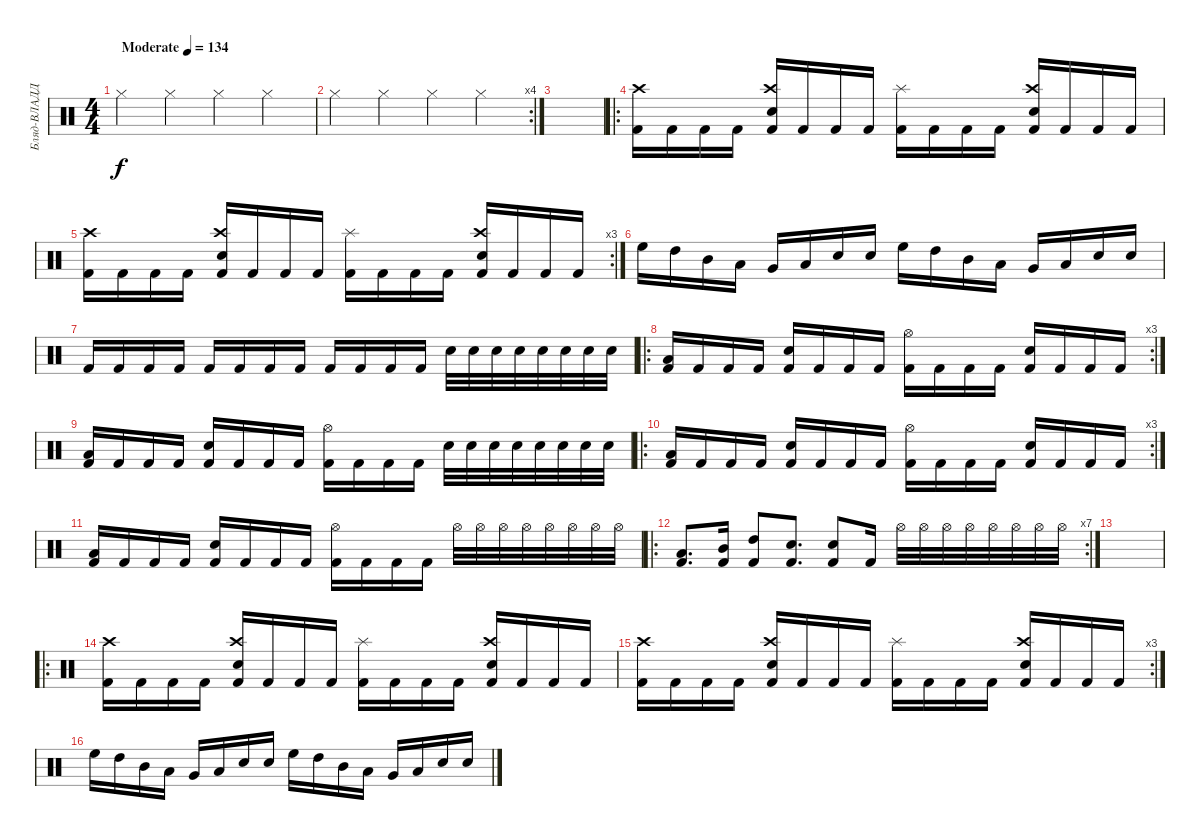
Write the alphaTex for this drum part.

\track ("Бляд-ВЛАДД" "Бляд-ВЛАДД") {instrument percussion}
\staff
\articulation defaults
\ts (4 4)
\tempo (134 "Moderate")
\clef neutral
\ks c "Hi-Hat (closed)".4{dy f} "Hi-Hat (closed)".4 "Hi-Hat (closed)".4 "Hi-Hat (closed)".4
|
\rc 4 "Hi-Hat (closed)".4 "Hi-Hat (closed)".4 "Hi-Hat (closed)".4 "Hi-Hat (closed)".4
|
|
\ro
("Kick (hit) 2" "Crash high (hit)").16 "Kick (hit) 2".16 "Kick (hit) 2".16 "Kick (hit) 2".16 ("Kick (hit) 2" "Crash high (hit)" "Snare (hit) 2").16 "Kick (hit) 2".16 "Kick (hit) 2".16 "Kick (hit) 2".16 ("Kick (hit) 2" "Splash (hit)").16 "Kick (hit) 2".16 "Kick (hit) 2".16 "Kick (hit) 2".16 ("Kick (hit) 2" "Crash high (hit)" "Snare (hit) 2").16 "Kick (hit) 2".16 "Kick (hit) 2".16 "Kick (hit) 2".16 |
\rc 3
("Kick (hit) 2" "Crash high (hit)").16 "Kick (hit) 2".16 "Kick (hit) 2".16 "Kick (hit) 2".16 ("Kick (hit) 2" "Crash high (hit)" "Snare (hit) 2").16 "Kick (hit) 2".16 "Kick (hit) 2".16 "Kick (hit) 2".16 ("Kick (hit) 2" "Splash (hit)").16 "Kick (hit) 2".16 "Kick (hit) 2".16 "Kick (hit) 2".16 ("Kick (hit) 2" "Crash high (hit)" "Snare (hit) 2").16 "Kick (hit) 2".16 "Kick (hit) 2".16 "Kick (hit) 2".16 |
"High Floor Tom (hit)".16 "High Tom (hit)".16 "Mid Tom (hit)".16 "Low Tom (hit)".16 "Very Low Tom (hit)".16 "Low Floor Tom (hit)".16 "Snare (hit) 2".16 "Snare (hit) 2".16 "High Floor Tom (hit)".16 "High Tom (hit)".16 "Mid Tom (hit)".16 "Low Tom (hit)".16 "Very Low Tom (hit)".16 "Low Floor Tom (hit)".16 "Snare (hit) 2".16 "Snare (hit) 2".16 |
"Kick (hit) 2".16 "Kick (hit) 2".16 "Kick (hit) 2".16 "Kick (hit) 2".16 "Kick (hit) 2".16 "Kick (hit) 2".16 "Kick (hit) 2".16 "Kick (hit) 2".16 "Kick (hit) 2".16 "Kick (hit) 2".16 "Kick (hit) 2".16 "Kick (hit) 2".16 "Snare (hit) 2".32 "Snare (hit) 2".32 "Snare (hit) 2".32 "Snare (hit) 2".32 "Snare (hit) 2".32 "Snare (hit) 2".32 "Snare (hit) 2".32 "Snare (hit) 2".32 |
\ro
\rc 3
("Kick (hit) 2" "Low Floor Tom (hit)").16 "Kick (hit) 2".16 "Kick (hit) 2".16 "Kick (hit) 2".16 ("Kick (hit) 2" "Electric Snare (hit)").16 "Kick (hit) 2".16 "Kick (hit) 2".16 "Kick (hit) 2".16 ("Kick (hit) 2" "Hi-Hat (open)").16 "Kick (hit) 2".16 "Kick (hit) 2".16 "Kick (hit) 2".16 ("Kick (hit) 2" "Snare (hit) 2").16 "Kick (hit) 2".16 "Kick (hit) 2".16 "Kick (hit) 2".16 |
("Kick (hit) 2" "Low Floor Tom (hit)").16 "Kick (hit) 2".16 "Kick (hit) 2".16 "Kick (hit) 2".16 ("Kick (hit) 2" "Electric Snare (hit)").16 "Kick (hit) 2".16 "Kick (hit) 2".16 "Kick (hit) 2".16 ("Kick (hit) 2" "Hi-Hat (open)").16 "Kick (hit) 2".16 "Kick (hit) 2".16 "Kick (hit) 2".16 "Snare (hit) 2".32 "Snare (hit) 2".32 "Snare (hit) 2".32 "Snare (hit) 2".32 "Snare (hit) 2".32 "Snare (hit) 2".32 "Snare (hit) 2".32 "Snare (hit) 2".32 |
\ro
\rc 3
("Kick (hit) 2" "Low Floor Tom (hit)").16 "Kick (hit) 2".16 "Kick (hit) 2".16 "Kick (hit) 2".16 ("Kick (hit) 2" "Electric Snare (hit)").16 "Kick (hit) 2".16 "Kick (hit) 2".16 "Kick (hit) 2".16 ("Kick (hit) 2" "Hi-Hat (open)").16 "Kick (hit) 2".16 "Kick (hit) 2".16 "Kick (hit) 2".16 ("Kick (hit) 2" "Snare (hit) 2").16 "Kick (hit) 2".16 "Kick (hit) 2".16 "Kick (hit) 2".16 |
("Kick (hit) 2" "Low Floor Tom (hit)").16 "Kick (hit) 2".16 "Kick (hit) 2".16 "Kick (hit) 2".16 ("Kick (hit) 2" "Electric Snare (hit)").16 "Kick (hit) 2".16 "Kick (hit) 2".16 "Kick (hit) 2".16 ("Kick (hit) 2" "Hi-Hat (open)").16 "Kick (hit) 2".16 "Kick (hit) 2".16 "Kick (hit) 2".16 "Hi-Hat (open)".32 "Hi-Hat (open)".32 "Hi-Hat (open)".32 "Hi-Hat (open)".32 "Hi-Hat (open)".32 "Hi-Hat (open)".32 "Hi-Hat (open)".32 "Hi-Hat (open)".32 |
\ro
\rc 7
("Low Floor Tom (hit)" "Kick (hit) 2").8{d} ("Mid Tom (hit)" "Kick (hit) 2").16 ("High Tom (hit)" "Kick (hit) 2").8 ("Electric Snare (hit)" "Kick (hit) 2").8{d} ("Electric Snare (hit)" "Kick (hit) 2").8 "Kick (hit) 2".16 "Hi-Hat (open)".32 "Hi-Hat (open)".32 "Hi-Hat (open)".32 "Hi-Hat (open)".32 "Hi-Hat (open)".32 "Hi-Hat (open)".32 "Hi-Hat (open)".32 "Hi-Hat (open)".32 |
|
\ro
("Kick (hit) 2" "Crash high (hit)").16 "Kick (hit) 2".16 "Kick (hit) 2".16 "Kick (hit) 2".16 ("Kick (hit) 2" "Crash high (hit)" "Snare (hit) 2").16 "Kick (hit) 2".16 "Kick (hit) 2".16 "Kick (hit) 2".16 ("Kick (hit) 2" "Splash (hit)").16 "Kick (hit) 2".16 "Kick (hit) 2".16 "Kick (hit) 2".16 ("Kick (hit) 2" "Crash high (hit)" "Snare (hit) 2").16 "Kick (hit) 2".16 "Kick (hit) 2".16 "Kick (hit) 2".16 |
\rc 3
("Kick (hit) 2" "Crash high (hit)").16 "Kick (hit) 2".16 "Kick (hit) 2".16 "Kick (hit) 2".16 ("Kick (hit) 2" "Crash high (hit)" "Snare (hit) 2").16 "Kick (hit) 2".16 "Kick (hit) 2".16 "Kick (hit) 2".16 ("Kick (hit) 2" "Splash (hit)").16 "Kick (hit) 2".16 "Kick (hit) 2".16 "Kick (hit) 2".16 ("Kick (hit) 2" "Crash high (hit)" "Snare (hit) 2").16 "Kick (hit) 2".16 "Kick (hit) 2".16 "Kick (hit) 2".16 |
"High Floor Tom (hit)".16 "High Tom (hit)".16 "Mid Tom (hit)".16 "Low Tom (hit)".16 "Very Low Tom (hit)".16 "Low Floor Tom (hit)".16 "Snare (hit) 2".16 "Snare (hit) 2".16 "High Floor Tom (hit)".16 "High Tom (hit)".16 "Mid Tom (hit)".16 "Low Tom (hit)".16 "Very Low Tom (hit)".16 "Low Floor Tom (hit)".16 "Snare (hit) 2".16 "Snare (hit) 2".16
